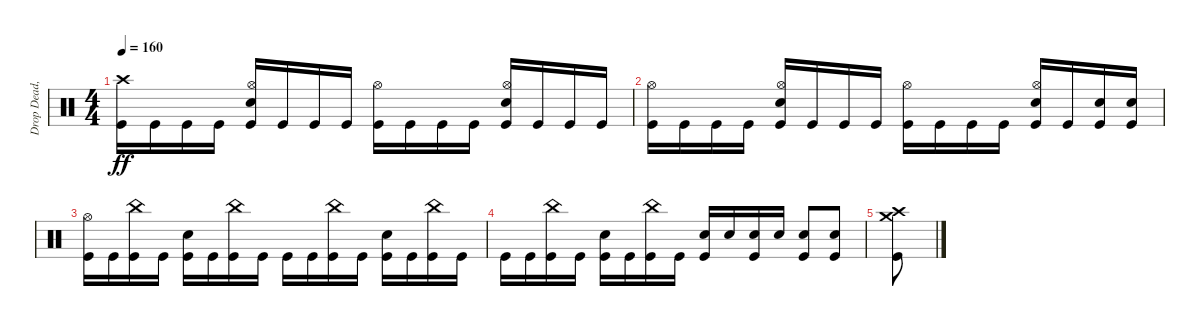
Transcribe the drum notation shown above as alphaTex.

\track ("Drop Dead, Johnny" "Drop Dead,") {instrument percussion}
\staff {score}
\articulation defaults
\ts (4 4)
\tempo 160
\clef neutral
\ks c
("Crash high (hit)" "Kick (hit)").16{dy ff} "Kick (hit)".16 "Kick (hit)".16 "Kick (hit)".16 ("Hi-Hat (open)" "Electric Snare (hit)" "Kick (hit)").16 "Kick (hit)".16 "Kick (hit)".16 "Kick (hit)".16 ("Hi-Hat (open)" "Kick (hit)").16 "Kick (hit)".16 "Kick (hit)".16 "Kick (hit)".16 ("Hi-Hat (open)" "Electric Snare (hit)" "Kick (hit)").16 "Kick (hit)".16 "Kick (hit)".16 "Kick (hit)".16 |
("Hi-Hat (open)" "Kick (hit)").16 "Kick (hit)".16 "Kick (hit)".16 "Kick (hit)".16 ("Hi-Hat (open)" "Electric Snare (hit)" "Kick (hit)").16 "Kick (hit)".16 "Kick (hit)".16 "Kick (hit)".16 ("Hi-Hat (open)" "Kick (hit)").16 "Kick (hit)".16 "Kick (hit)".16 "Kick (hit)".16 ("Hi-Hat (open)" "Electric Snare (hit)" "Kick (hit)").16 "Kick (hit)".16 ("Electric Snare (hit)" "Kick (hit)").16 ("Electric Snare (hit)" "Kick (hit)").16 |
("Hi-Hat (open)" "Kick (hit)").16 "Kick (hit)".16 ("China (hit)" "Kick (hit)").16 "Kick (hit)".16 ("Electric Snare (hit)" "Kick (hit)").16 "Kick (hit)".16 ("China (hit)" "Kick (hit)").16 "Kick (hit)".16 "Kick (hit)".16 "Kick (hit)".16 ("China (hit)" "Kick (hit)").16 "Kick (hit)".16 ("Electric Snare (hit)" "Kick (hit)").16 "Kick (hit)".16 ("China (hit)" "Kick (hit)").16 "Kick (hit)".16 |
"Kick (hit)".16 "Kick (hit)".16 ("China (hit)" "Kick (hit)").16 "Kick (hit)".16 ("Electric Snare (hit)" "Kick (hit)").16 "Kick (hit)".16 ("China (hit)" "Kick (hit)").16 "Kick (hit)".16 ("Electric Snare (hit)" "Kick (hit)").16 "Electric Snare (hit)".16 ("Electric Snare (hit)" "Kick (hit)").16 "Electric Snare (hit)".16 ("Electric Snare (hit)" "Kick (hit)").8 ("Electric Snare (hit)" "Kick (hit)").8 |
("Crash high (hit)" "Crash medium (hit)" "Kick (hit)").8
